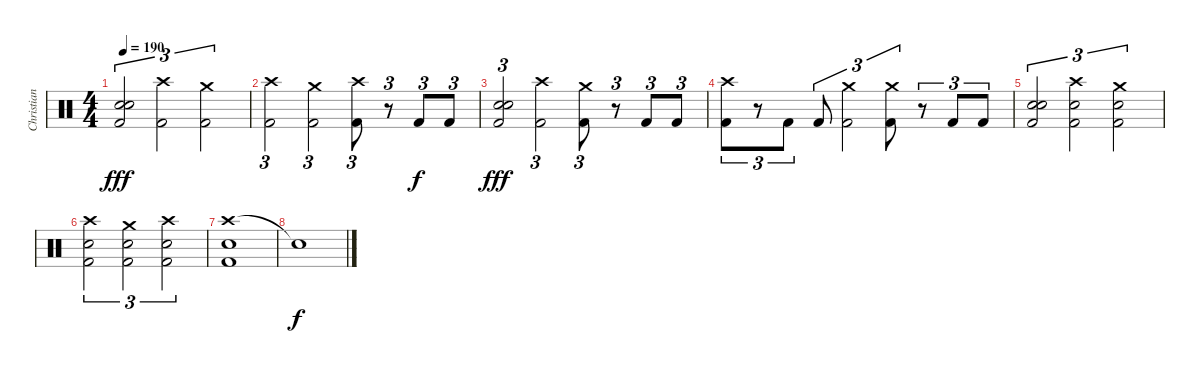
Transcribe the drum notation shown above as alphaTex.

\track ("Christian Coma Mora (CC)" "Christian ") {instrument percussion}
\staff {score}
\articulation defaults
\ts (4 4)
\tempo 190
\clef neutral
\ks c
("Snare (hit) 2" "Electric Snare (hit)" "Kick (hit) 2").2{tu (3 2) dy fff} ("Crash high (hit)" "Kick (hit) 2").2{tu (3 2)} ("Crash medium (hit)" "Kick (hit) 2").2{tu (3 2)} |
("Crash high (hit)" "Kick (hit) 2").2{tu (3 2)} ("Crash medium (hit)" "Kick (hit) 2").2{tu (3 2)} ("Crash high (hit)" "Kick (hit) 2").8{tu (3 2)} r.8{tu (3 2)} "Kick (hit) 2".8{tu (3 2) dy f} "Kick (hit) 2".8{tu (3 2)} |
("Snare (hit) 2" "Electric Snare (hit)" "Kick (hit) 2").2{tu (3 2) dy fff} ("Crash high (hit)" "Kick (hit) 2").2{tu (3 2)} ("Crash medium (hit)" "Kick (hit) 2").8{tu (3 2)} r.8{tu (3 2)} "Kick (hit) 2".8{tu (3 2)} "Kick (hit) 2".8{tu (3 2)} |
("Crash high (hit)" "Kick (hit) 2").8{tu (3 2)} r.8{tu (3 2)} "Kick (hit) 2".8{tu (3 2)} "Kick (hit) 2".8{tu (3 2)} ("Crash medium (hit)" "Kick (hit) 2").2{tu (3 2)} ("Crash medium (hit)" "Kick (hit) 2").8{tu (3 2)} r.8{tu (3 2)} "Kick (hit) 2".8{tu (3 2)} "Kick (hit) 2".8{tu (3 2)} |
("Snare (hit) 2" "Electric Snare (hit)" "Kick (hit) 2").2{tu (3 2)} ("Crash high (hit)" "Electric Snare (hit)" "Kick (hit) 2").2{tu (3 2)} ("Crash medium (hit)" "Electric Snare (hit)" "Kick (hit) 2").2{tu (3 2)} |
("Crash high (hit)" "Electric Snare (hit)" "Kick (hit) 2").2{tu (3 2)} ("Crash medium (hit)" "Electric Snare (hit)" "Kick (hit) 2").2{tu (3 2)} ("Crash high (hit)" "Electric Snare (hit)" "Kick (hit) 2").2{tu (3 2)} |
("Crash high (hit)" "Electric Snare (hit)" "Kick (hit) 2").1 |
"Snare (hit)"{t}.1{dy f}
